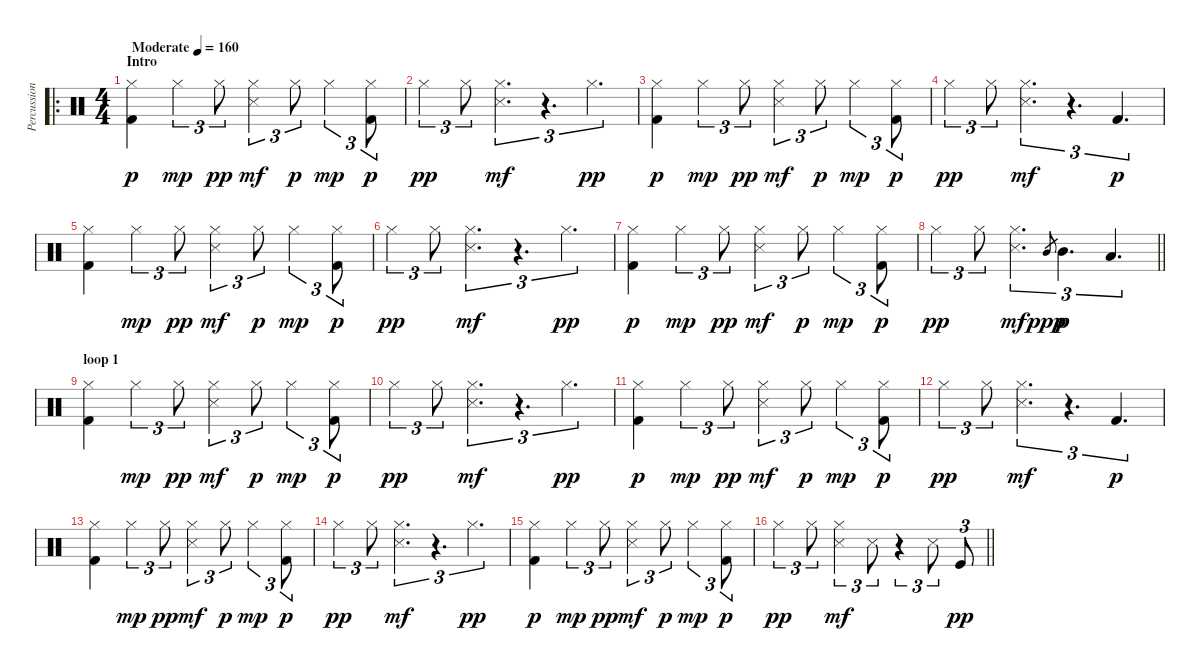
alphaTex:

\track ("Percussion" "Percussion") {instrument percussion}
\staff {score}
\articulation defaults
\ro
\ts (4 4)
\section ("" "Intro")
\tempo (160 "Moderate")
\clef neutral
\ks c
("Hi-Hat (closed)" "Kick (hit) 2").4{dy p} "Hi-Hat (closed)".4{tu (3 2) dy mp} "Hi-Hat (closed)".8{tu (3 2) dy pp} ("Hi-Hat (closed)" "Snare (side stick) 3").4{tu (3 2) dy mf} "Hi-Hat (closed)".8{tu (3 2) dy p} "Hi-Hat (closed)".4{tu (3 2) dy mp} ("Hi-Hat (closed)" "Kick (hit) 2").8{tu (3 2) dy p} |
"Hi-Hat (closed)".4{tu (3 2) dy pp} "Hi-Hat (closed)".8{tu (3 2)} ("Hi-Hat (closed)" "Snare (side stick) 3").4{d tu (3 2) dy mf} r.4{d tu (3 2)} "Hi-Hat (closed)".4{d tu (3 2) dy pp} |
("Hi-Hat (closed)" "Kick (hit) 2").4{dy p} "Hi-Hat (closed)".4{tu (3 2) dy mp} "Hi-Hat (closed)".8{tu (3 2) dy pp} ("Hi-Hat (closed)" "Snare (side stick) 3").4{tu (3 2) dy mf} "Hi-Hat (closed)".8{tu (3 2) dy p} "Hi-Hat (closed)".4{tu (3 2) dy mp} ("Hi-Hat (closed)" "Kick (hit) 2").8{tu (3 2) dy p} |
"Hi-Hat (closed)".4{tu (3 2) dy pp} "Hi-Hat (closed)".8{tu (3 2)} ("Hi-Hat (closed)" "Snare (side stick) 3").4{d tu (3 2) dy mf} r.4{d tu (3 2)} "Kick (hit) 2".4{d tu (3 2) dy p} |
("Hi-Hat (closed)" "Kick (hit) 2").4 "Hi-Hat (closed)".4{tu (3 2) dy mp} "Hi-Hat (closed)".8{tu (3 2) dy pp} ("Hi-Hat (closed)" "Snare (side stick) 3").4{tu (3 2) dy mf} "Hi-Hat (closed)".8{tu (3 2) dy p} "Hi-Hat (closed)".4{tu (3 2) dy mp} ("Hi-Hat (closed)" "Kick (hit) 2").8{tu (3 2) dy p} |
"Hi-Hat (closed)".4{tu (3 2) dy pp} "Hi-Hat (closed)".8{tu (3 2)} ("Hi-Hat (closed)" "Snare (side stick) 3").4{d tu (3 2) dy mf} r.4{d tu (3 2)} "Hi-Hat (closed)".4{d tu (3 2) dy pp} |
("Hi-Hat (closed)" "Kick (hit) 2").4{dy p} "Hi-Hat (closed)".4{tu (3 2) dy mp} "Hi-Hat (closed)".8{tu (3 2) dy pp} ("Hi-Hat (closed)" "Snare (side stick) 3").4{tu (3 2) dy mf} "Hi-Hat (closed)".8{tu (3 2) dy p} "Hi-Hat (closed)".4{tu (3 2) dy mp} ("Hi-Hat (closed)" "Kick (hit) 2").8{tu (3 2) dy p} |
\barLineRight lightlight "Hi-Hat (closed)".4{tu (3 2) dy pp} "Hi-Hat (closed)".8{tu (3 2)}
("Hi-Hat (closed)" "Snare (side stick) 3").4{d tu (3 2) dy mf} "Mid Tom (hit)".8{gr dy ppp} "Mid Tom (hit)".4{d tu (3 2) dy p} "Low Tom (hit)".4{d tu (3 2)} |
\section ("" "loop 1")
("Hi-Hat (closed)" "Kick (hit) 2").4 "Hi-Hat (closed)".4{tu (3 2) dy mp} "Hi-Hat (closed)".8{tu (3 2) dy pp} ("Hi-Hat (closed)" "Snare (side stick) 3").4{tu (3 2) dy mf} "Hi-Hat (closed)".8{tu (3 2) dy p} "Hi-Hat (closed)".4{tu (3 2) dy mp} ("Hi-Hat (closed)" "Kick (hit) 2").8{tu (3 2) dy p} |
"Hi-Hat (closed)".4{tu (3 2) dy pp} "Hi-Hat (closed)".8{tu (3 2)} ("Hi-Hat (closed)" "Snare (side stick) 3").4{d tu (3 2) dy mf} r.4{d tu (3 2)} "Hi-Hat (closed)".4{d tu (3 2) dy pp} |
("Hi-Hat (closed)" "Kick (hit) 2").4{dy p} "Hi-Hat (closed)".4{tu (3 2) dy mp} "Hi-Hat (closed)".8{tu (3 2) dy pp} ("Hi-Hat (closed)" "Snare (side stick) 3").4{tu (3 2) dy mf} "Hi-Hat (closed)".8{tu (3 2) dy p} "Hi-Hat (closed)".4{tu (3 2) dy mp} ("Hi-Hat (closed)" "Kick (hit) 2").8{tu (3 2) dy p} |
"Hi-Hat (closed)".4{tu (3 2) dy pp} "Hi-Hat (closed)".8{tu (3 2)} ("Hi-Hat (closed)" "Snare (side stick) 3").4{d tu (3 2) dy mf} r.4{d tu (3 2)} "Kick (hit) 2".4{d tu (3 2) dy p} |
("Hi-Hat (closed)" "Kick (hit) 2").4 "Hi-Hat (closed)".4{tu (3 2) dy mp} "Hi-Hat (closed)".8{tu (3 2) dy pp} ("Hi-Hat (closed)" "Snare (side stick) 3").4{tu (3 2) dy mf} "Hi-Hat (closed)".8{tu (3 2) dy p} "Hi-Hat (closed)".4{tu (3 2) dy mp} ("Hi-Hat (closed)" "Kick (hit) 2").8{tu (3 2) dy p} |
"Hi-Hat (closed)".4{tu (3 2) dy pp} "Hi-Hat (closed)".8{tu (3 2)} ("Hi-Hat (closed)" "Snare (side stick) 3").4{d tu (3 2) dy mf} r.4{d tu (3 2)} "Hi-Hat (closed)".4{d tu (3 2) dy pp} |
("Hi-Hat (closed)" "Kick (hit) 2").4{dy p} "Hi-Hat (closed)".4{tu (3 2) dy mp} "Hi-Hat (closed)".8{tu (3 2) dy pp} ("Hi-Hat (closed)" "Snare (side stick) 3").4{tu (3 2) dy mf} "Hi-Hat (closed)".8{tu (3 2) dy p} "Hi-Hat (closed)".4{tu (3 2) dy mp} ("Hi-Hat (closed)" "Kick (hit) 2").8{tu (3 2) dy p} |
\barLineRight lightlight "Hi-Hat (closed)".4{tu (3 2) dy pp} "Hi-Hat (closed)".8{tu (3 2)}
("Hi-Hat (closed)" "Snare (side stick) 3").4{tu (3 2) dy mf} "Snare (side stick) 3".8{tu (3 2)} r.4{tu (3 2)} "Snare (side stick) 3".8{tu (3 2)} "Kick (hit)".8{tu (3 2) dy pp}
